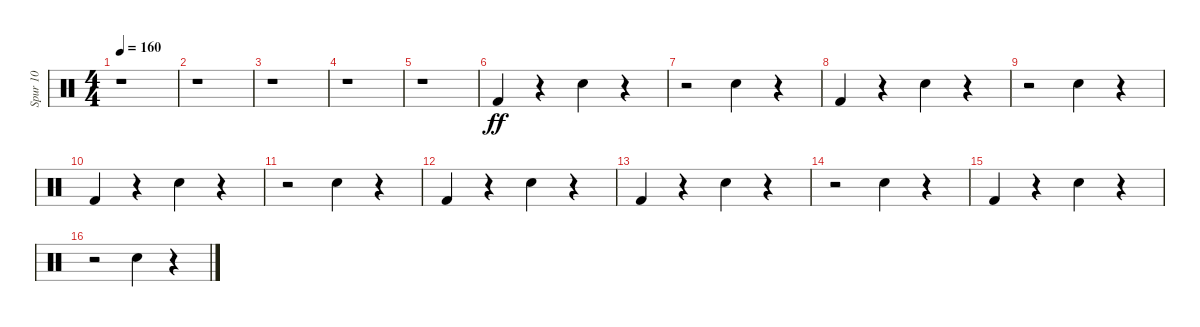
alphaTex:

\track ("Spur 10" "Spur 10") {instrument percussion}
\staff {score}
\articulation defaults
\ts (4 4)
\tempo 160
\clef neutral
\ks c
r.1{dy ff} |
r.1 |
r.1 |
r.1 |
r.1 |
"Kick (hit) 2".4 r.4 "Snare (hit) 2".4 r.4 |
r.2 "Snare (hit) 2".4 r.4 |
"Kick (hit) 2".4 r.4 "Snare (hit) 2".4 r.4 |
r.2 "Snare (hit) 2".4 r.4 |
"Kick (hit) 2".4 r.4 "Snare (hit) 2".4 r.4 |
r.2 "Snare (hit) 2".4 r.4 |
"Kick (hit) 2".4 r.4 "Snare (hit) 2".4 r.4 |
"Kick (hit) 2".4 r.4 "Snare (hit) 2".4 r.4 |
r.2 "Snare (hit) 2".4 r.4 |
"Kick (hit) 2".4 r.4 "Snare (hit) 2".4 r.4 |
r.2 "Snare (hit) 2".4 r.4
